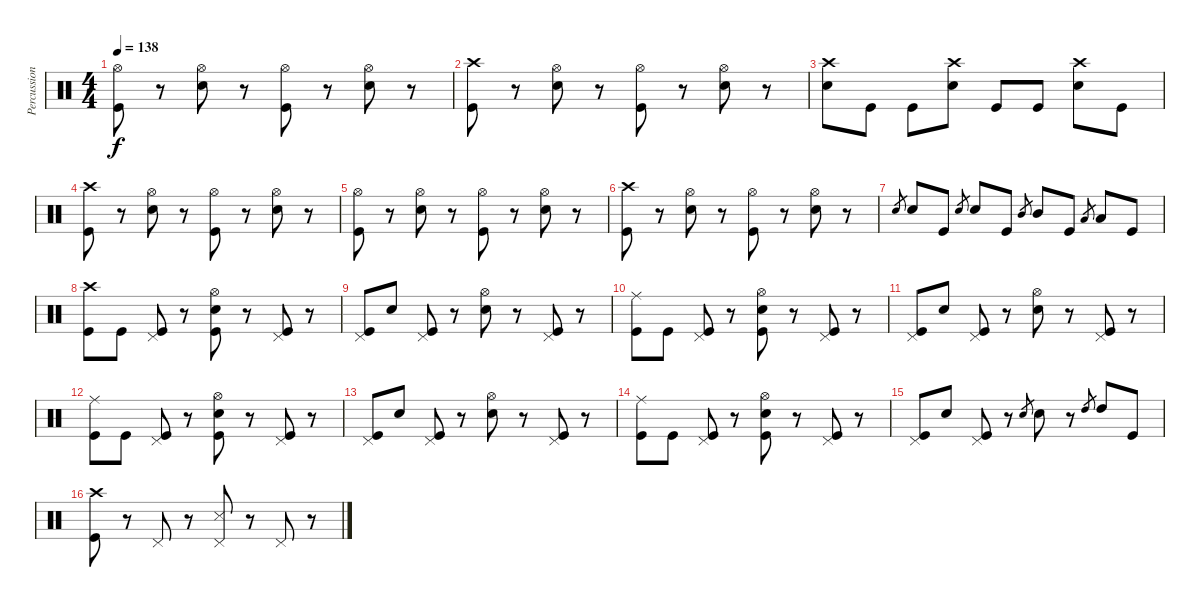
\track ("Percussion" "Percussion") {instrument percussion}
\staff {score}
\articulation defaults
\ts (4 4)
\tempo 138
\clef neutral
\ks c
("Hi-Hat (open)" "Kick (hit)").8{dy f} r.8 ("Snare (hit) 2" "Hi-Hat (open)").8 r.8 ("Hi-Hat (open)" "Kick (hit)").8 r.8 ("Snare (hit) 2" "Hi-Hat (open)").8 r.8 |
("Crash high (hit)" "Kick (hit)").8 r.8 ("Snare (hit) 2" "Hi-Hat (open)").8 r.8 ("Hi-Hat (open)" "Kick (hit)").8 r.8 ("Snare (hit) 2" "Hi-Hat (open)").8 r.8 |
("Snare (hit) 2" "Crash high (hit)").8 "Kick (hit)".8 "Kick (hit)".8 ("Snare (hit) 2" "Crash high (hit)").8 "Kick (hit)".8 "Kick (hit)".8 ("Snare (hit) 2" "Crash high (hit)").8 "Kick (hit)".8 |
("Crash high (hit)" "Kick (hit)").8 r.8 ("Snare (hit) 2" "Hi-Hat (open)").8 r.8 ("Hi-Hat (open)" "Kick (hit)").8 r.8 ("Snare (hit) 2" "Hi-Hat (open)").8 r.8 |
("Hi-Hat (open)" "Kick (hit)").8 r.8 ("Snare (hit) 2" "Hi-Hat (open)").8 r.8 ("Hi-Hat (open)" "Kick (hit)").8 r.8 ("Snare (hit) 2" "Hi-Hat (open)").8 r.8 |
("Crash high (hit)" "Kick (hit)").8 r.8 ("Snare (hit) 2" "Hi-Hat (open)").8 r.8 ("Hi-Hat (open)" "Kick (hit)").8 r.8 ("Snare (hit) 2" "Hi-Hat (open)").8 r.8 |
"Snare (hit) 2".8{gr} "Snare (hit) 2".8 "Kick (hit)".8 "Snare (hit) 2".8{gr} "Snare (hit) 2".8 "Kick (hit)".8 "Mid Tom (hit)".8{gr} "Mid Tom (hit)".8 "Kick (hit)".8 "Low Tom (hit)".8{gr} "Low Tom (hit)".8 "Kick (hit)".8 |
("Crash high (hit)" "Kick (hit)").8 "Kick (hit)".8 ("Pedal Hi-Hat (hit)" "Kick (hit)").8 r.8 ("Snare (hit) 2" "Hi-Hat (open)" "Kick (hit)").8 r.8 ("Pedal Hi-Hat (hit)" "Kick (hit)").8 r.8 |
("Pedal Hi-Hat (hit)" "Kick (hit)").8 "Snare (hit) 2".8 ("Pedal Hi-Hat (hit)" "Kick (hit)").8 r.8 ("Snare (hit) 2" "Hi-Hat (open)").8 r.8 ("Pedal Hi-Hat (hit)" "Kick (hit)").8 r.8 |
("Ride (middle)" "Kick (hit)").8 "Kick (hit)".8 ("Pedal Hi-Hat (hit)" "Kick (hit)").8 r.8 ("Snare (hit) 2" "Hi-Hat (open)" "Kick (hit)").8 r.8 ("Pedal Hi-Hat (hit)" "Kick (hit)").8 r.8 |
("Pedal Hi-Hat (hit)" "Kick (hit)").8 "Snare (hit) 2".8 ("Pedal Hi-Hat (hit)" "Kick (hit)").8 r.8 ("Snare (hit) 2" "Hi-Hat (open)").8 r.8 ("Pedal Hi-Hat (hit)" "Kick (hit)").8 r.8 |
("Ride (middle)" "Kick (hit)").8 "Kick (hit)".8 ("Pedal Hi-Hat (hit)" "Kick (hit)").8 r.8 ("Snare (hit) 2" "Hi-Hat (open)" "Kick (hit)").8 r.8 ("Pedal Hi-Hat (hit)" "Kick (hit)").8 r.8 |
("Pedal Hi-Hat (hit)" "Kick (hit)").8 "Snare (hit) 2".8 ("Pedal Hi-Hat (hit)" "Kick (hit)").8 r.8 ("Snare (hit) 2" "Hi-Hat (open)").8 r.8 ("Pedal Hi-Hat (hit)" "Kick (hit)").8 r.8 |
("Ride (middle)" "Kick (hit)").8 "Kick (hit)".8 ("Pedal Hi-Hat (hit)" "Kick (hit)").8 r.8 ("Snare (hit) 2" "Hi-Hat (open)" "Kick (hit)").8 r.8 ("Pedal Hi-Hat (hit)" "Kick (hit)").8 r.8 |
("Pedal Hi-Hat (hit)" "Kick (hit)").8 "Snare (hit) 2".8 ("Pedal Hi-Hat (hit)" "Kick (hit)").8 r.8 "Snare (hit) 2".8{gr} "Snare (hit) 2".8 r.8 "High Tom (hit)".8{gr} "High Tom (hit)".8 "Kick (hit)".8 |
("Crash high (hit)" "Kick (hit)").8 r.8 "Pedal Hi-Hat (hit)".8 r.8 ("Snare (side stick) 3" "Pedal Hi-Hat (hit)").8 r.8 "Pedal Hi-Hat (hit)".8 r.8
